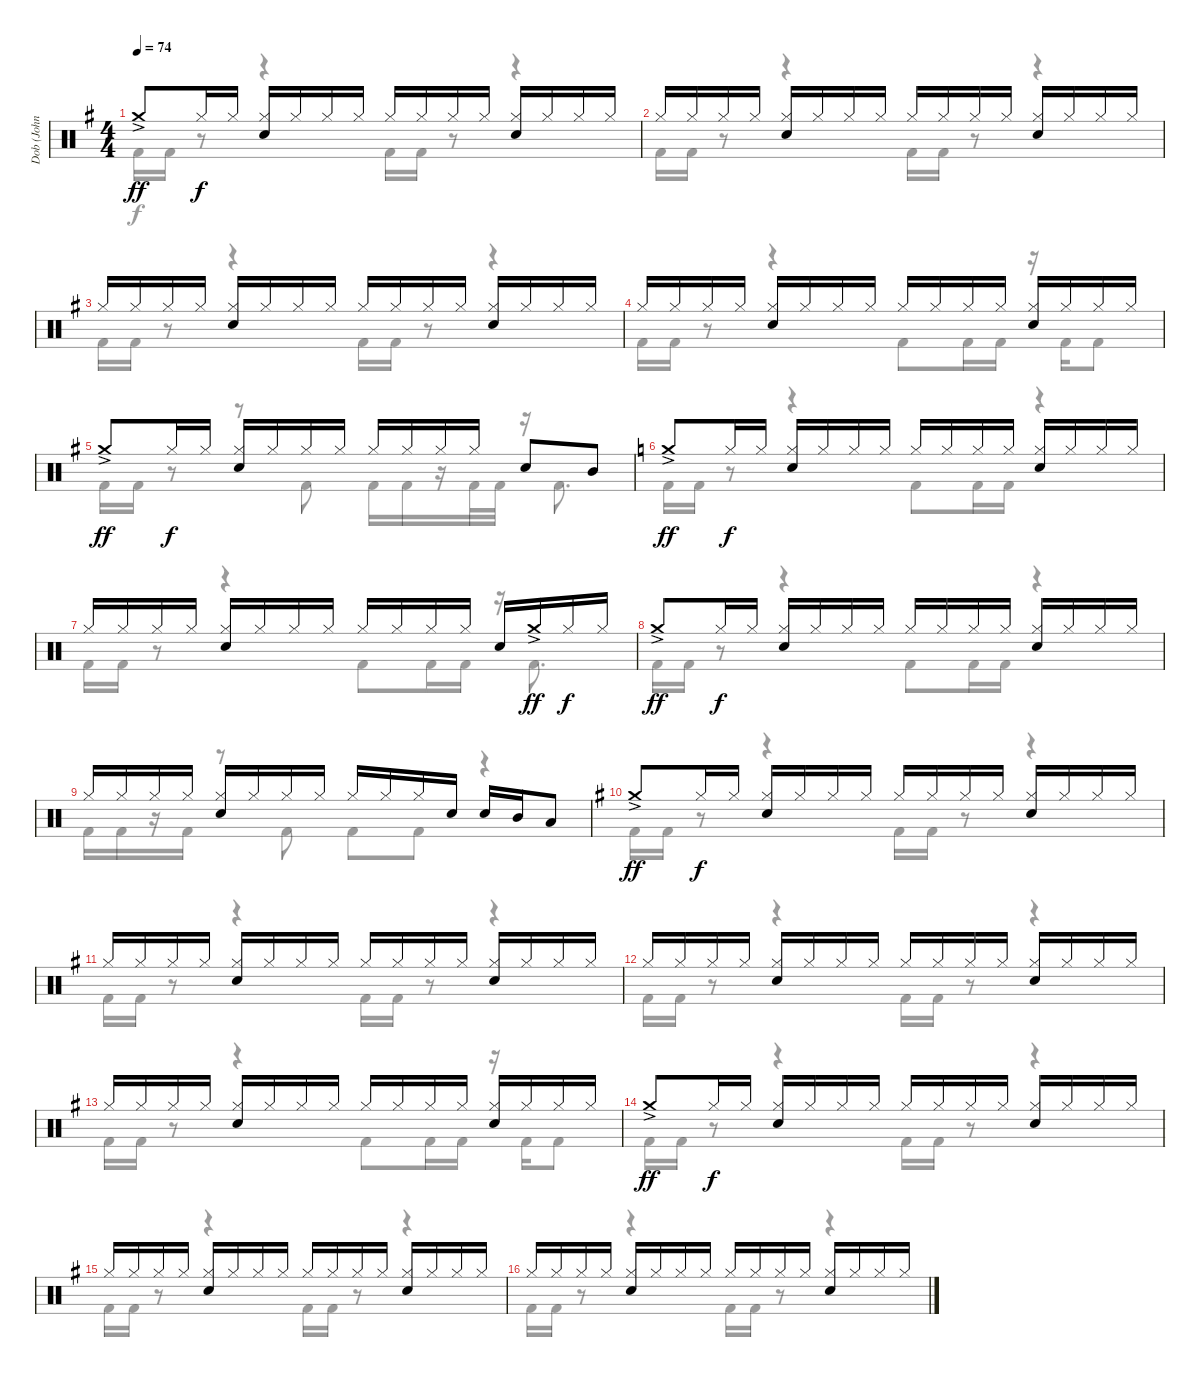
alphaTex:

\track ("Dob (John O'Reilly)" "Dob (John ") {instrument percussion}
\staff {score}
\articulation defaults
\voice
\ts (4 4)
\tempo 74
\clef neutral
\ks g "Crash medium (hit)"{ac}.8{dy ff} "Hi-Hat (closed)".16{dy f} "Hi-Hat (closed)".16
("Hi-Hat (closed)" "Electric Snare (hit)").16 "Hi-Hat (closed)".16 "Hi-Hat (closed)".16 "Hi-Hat (closed)".16 "Hi-Hat (closed)".16 "Hi-Hat (closed)".16 "Hi-Hat (closed)".16 "Hi-Hat (closed)".16 ("Hi-Hat (closed)" "Electric Snare (hit)").16 "Hi-Hat (closed)".16 "Hi-Hat (closed)".16 "Hi-Hat (closed)".16 |
"Hi-Hat (closed)".16 "Hi-Hat (closed)".16 "Hi-Hat (closed)".16 "Hi-Hat (closed)".16 ("Hi-Hat (closed)" "Electric Snare (hit)").16 "Hi-Hat (closed)".16 "Hi-Hat (closed)".16 "Hi-Hat (closed)".16 "Hi-Hat (closed)".16 "Hi-Hat (closed)".16 "Hi-Hat (closed)".16 "Hi-Hat (closed)".16 ("Hi-Hat (closed)" "Electric Snare (hit)").16 "Hi-Hat (closed)".16 "Hi-Hat (closed)".16 "Hi-Hat (closed)".16 |
"Hi-Hat (closed)".16 "Hi-Hat (closed)".16 "Hi-Hat (closed)".16 "Hi-Hat (closed)".16 ("Hi-Hat (closed)" "Electric Snare (hit)").16 "Hi-Hat (closed)".16 "Hi-Hat (closed)".16 "Hi-Hat (closed)".16 "Hi-Hat (closed)".16 "Hi-Hat (closed)".16 "Hi-Hat (closed)".16 "Hi-Hat (closed)".16 ("Hi-Hat (closed)" "Electric Snare (hit)").16 "Hi-Hat (closed)".16 "Hi-Hat (closed)".16 "Hi-Hat (closed)".16 |
"Hi-Hat (closed)".16 "Hi-Hat (closed)".16 "Hi-Hat (closed)".16 "Hi-Hat (closed)".16 ("Hi-Hat (closed)" "Electric Snare (hit)").16 "Hi-Hat (closed)".16 "Hi-Hat (closed)".16 "Hi-Hat (closed)".16 "Hi-Hat (closed)".16 "Hi-Hat (closed)".16 "Hi-Hat (closed)".16 "Hi-Hat (closed)".16 ("Hi-Hat (closed)" "Electric Snare (hit)").16 "Hi-Hat (closed)".16 "Hi-Hat (closed)".16 "Hi-Hat (closed)".16 |
"Crash medium (hit)"{ac}.8{dy ff} "Hi-Hat (closed)".16{dy f} "Hi-Hat (closed)".16 ("Hi-Hat (closed)" "Electric Snare (hit)").16 "Hi-Hat (closed)".16 "Hi-Hat (closed)".16 "Hi-Hat (closed)".16 "Hi-Hat (closed)".16 "Hi-Hat (closed)".16 "Hi-Hat (closed)".16 "Hi-Hat (closed)".16 "Electric Snare (hit)".8 "Mid Tom (hit)".8 |
\ks c "Crash medium (hit)"{ac}.8{dy ff} "Hi-Hat (closed)".16{dy f} "Hi-Hat (closed)".16
("Hi-Hat (closed)" "Electric Snare (hit)").16 "Hi-Hat (closed)".16 "Hi-Hat (closed)".16 "Hi-Hat (closed)".16 "Hi-Hat (closed)".16 "Hi-Hat (closed)".16 "Hi-Hat (closed)".16 "Hi-Hat (closed)".16 ("Hi-Hat (closed)" "Electric Snare (hit)").16 "Hi-Hat (closed)".16 "Hi-Hat (closed)".16 "Hi-Hat (closed)".16 |
"Hi-Hat (closed)".16 "Hi-Hat (closed)".16 "Hi-Hat (closed)".16 "Hi-Hat (closed)".16 ("Hi-Hat (closed)" "Electric Snare (hit)").16 "Hi-Hat (closed)".16 "Hi-Hat (closed)".16 "Hi-Hat (closed)".16 "Hi-Hat (closed)".16 "Hi-Hat (closed)".16 "Hi-Hat (closed)".16 "Hi-Hat (closed)".16 "Electric Snare (hit)".16 "Crash medium (hit)"{ac}.16{dy ff} "Hi-Hat (closed)".16{dy f} "Hi-Hat (closed)".16 |
"Crash medium (hit)"{ac}.8{dy ff} "Hi-Hat (closed)".16{dy f} "Hi-Hat (closed)".16 ("Hi-Hat (closed)" "Electric Snare (hit)").16 "Hi-Hat (closed)".16 "Hi-Hat (closed)".16 "Hi-Hat (closed)".16 "Hi-Hat (closed)".16 "Hi-Hat (closed)".16 "Hi-Hat (closed)".16 "Hi-Hat (closed)".16 ("Hi-Hat (closed)" "Electric Snare (hit)").16 "Hi-Hat (closed)".16 "Hi-Hat (closed)".16 "Hi-Hat (closed)".16 |
"Hi-Hat (closed)".16 "Hi-Hat (closed)".16 "Hi-Hat (closed)".16 "Hi-Hat (closed)".16 ("Hi-Hat (closed)" "Electric Snare (hit)").16 "Hi-Hat (closed)".16 "Hi-Hat (closed)".16 "Hi-Hat (closed)".16 "Hi-Hat (closed)".16 "Hi-Hat (closed)".16 "Hi-Hat (closed)".16 "Electric Snare (hit)".16 "Electric Snare (hit)".16 "Mid Tom (hit)".16 "Low Tom (hit)".8 |
\ks g "Crash medium (hit)"{ac}.8{dy ff} "Hi-Hat (closed)".16{dy f} "Hi-Hat (closed)".16
("Hi-Hat (closed)" "Electric Snare (hit)").16 "Hi-Hat (closed)".16 "Hi-Hat (closed)".16 "Hi-Hat (closed)".16 "Hi-Hat (closed)".16 "Hi-Hat (closed)".16 "Hi-Hat (closed)".16 "Hi-Hat (closed)".16 ("Hi-Hat (closed)" "Electric Snare (hit)").16 "Hi-Hat (closed)".16 "Hi-Hat (closed)".16 "Hi-Hat (closed)".16 |
"Hi-Hat (closed)".16 "Hi-Hat (closed)".16 "Hi-Hat (closed)".16 "Hi-Hat (closed)".16 ("Hi-Hat (closed)" "Electric Snare (hit)").16 "Hi-Hat (closed)".16 "Hi-Hat (closed)".16 "Hi-Hat (closed)".16 "Hi-Hat (closed)".16 "Hi-Hat (closed)".16 "Hi-Hat (closed)".16 "Hi-Hat (closed)".16 ("Hi-Hat (closed)" "Electric Snare (hit)").16 "Hi-Hat (closed)".16 "Hi-Hat (closed)".16 "Hi-Hat (closed)".16 |
"Hi-Hat (closed)".16 "Hi-Hat (closed)".16 "Hi-Hat (closed)".16 "Hi-Hat (closed)".16 ("Hi-Hat (closed)" "Electric Snare (hit)").16 "Hi-Hat (closed)".16 "Hi-Hat (closed)".16 "Hi-Hat (closed)".16 "Hi-Hat (closed)".16 "Hi-Hat (closed)".16 "Hi-Hat (closed)".16 "Hi-Hat (closed)".16 ("Hi-Hat (closed)" "Electric Snare (hit)").16 "Hi-Hat (closed)".16 "Hi-Hat (closed)".16 "Hi-Hat (closed)".16 |
"Hi-Hat (closed)".16 "Hi-Hat (closed)".16 "Hi-Hat (closed)".16 "Hi-Hat (closed)".16 ("Hi-Hat (closed)" "Electric Snare (hit)").16 "Hi-Hat (closed)".16 "Hi-Hat (closed)".16 "Hi-Hat (closed)".16 "Hi-Hat (closed)".16 "Hi-Hat (closed)".16 "Hi-Hat (closed)".16 "Hi-Hat (closed)".16 ("Hi-Hat (closed)" "Electric Snare (hit)").16 "Hi-Hat (closed)".16 "Hi-Hat (closed)".16 "Hi-Hat (closed)".16 |
"Crash medium (hit)"{ac}.8{dy ff} "Hi-Hat (closed)".16{dy f} "Hi-Hat (closed)".16 ("Hi-Hat (closed)" "Electric Snare (hit)").16 "Hi-Hat (closed)".16 "Hi-Hat (closed)".16 "Hi-Hat (closed)".16 "Hi-Hat (closed)".16 "Hi-Hat (closed)".16 "Hi-Hat (closed)".16 "Hi-Hat (closed)".16 ("Hi-Hat (closed)" "Electric Snare (hit)").16 "Hi-Hat (closed)".16 "Hi-Hat (closed)".16 "Hi-Hat (closed)".16 |
"Hi-Hat (closed)".16 "Hi-Hat (closed)".16 "Hi-Hat (closed)".16 "Hi-Hat (closed)".16 ("Hi-Hat (closed)" "Electric Snare (hit)").16 "Hi-Hat (closed)".16 "Hi-Hat (closed)".16 "Hi-Hat (closed)".16 "Hi-Hat (closed)".16 "Hi-Hat (closed)".16 "Hi-Hat (closed)".16 "Hi-Hat (closed)".16 ("Hi-Hat (closed)" "Electric Snare (hit)").16 "Hi-Hat (closed)".16 "Hi-Hat (closed)".16 "Hi-Hat (closed)".16 |
"Hi-Hat (closed)".16 "Hi-Hat (closed)".16 "Hi-Hat (closed)".16 "Hi-Hat (closed)".16 ("Hi-Hat (closed)" "Electric Snare (hit)").16 "Hi-Hat (closed)".16 "Hi-Hat (closed)".16 "Hi-Hat (closed)".16 "Hi-Hat (closed)".16 "Hi-Hat (closed)".16 "Hi-Hat (closed)".16 "Hi-Hat (closed)".16 ("Hi-Hat (closed)" "Electric Snare (hit)").16 "Hi-Hat (closed)".16 "Hi-Hat (closed)".16 "Hi-Hat (closed)".16
\voice
\clef neutral
\ottava regular
\simile none
\ks g "Kick (hit) 2".16{dy f} "Kick (hit) 2".16
r.8 r.4 "Kick (hit) 2".16 "Kick (hit) 2".16 r.8 r.4 |
"Kick (hit) 2".16 "Kick (hit) 2".16 r.8 r.4 "Kick (hit) 2".16 "Kick (hit) 2".16 r.8 r.4 |
"Kick (hit) 2".16 "Kick (hit) 2".16 r.8 r.4 "Kick (hit) 2".16 "Kick (hit) 2".16 r.8 r.4 |
"Kick (hit) 2".16 "Kick (hit) 2".16 r.8 r.4 "Kick (hit) 2".8 "Kick (hit) 2".16 "Kick (hit) 2".16 r.16 "Kick (hit) 2".16 "Kick (hit) 2".8 |
"Kick (hit) 2".16 "Kick (hit) 2".16 r.8 r.8 "Kick (hit) 2".8 "Kick (hit) 2".16 "Kick (hit) 2".16 r.16 "Kick (hit) 2".32 "Kick (hit) 2".32 r.16 "Kick (hit) 2".8{d} |
\ks c "Kick (hit) 2".16 "Kick (hit) 2".16
r.8 r.4 "Kick (hit) 2".8 "Kick (hit) 2".16 "Kick (hit) 2".16 r.4 |
"Kick (hit) 2".16 "Kick (hit) 2".16 r.8 r.4 "Kick (hit) 2".8 "Kick (hit) 2".16 "Kick (hit) 2".16 r.16 "Kick (hit) 2".8{d} |
"Kick (hit) 2".16 "Kick (hit) 2".16 r.8 r.4 "Kick (hit) 2".8 "Kick (hit) 2".16 "Kick (hit) 2".16 r.4 |
"Kick (hit) 2".16 "Kick (hit) 2".16 r.16 "Kick (hit) 2".16 r.8 "Kick (hit) 2".8 "Kick (hit) 2".8 "Kick (hit) 2".8 r.4 |
\ks g "Kick (hit) 2".16 "Kick (hit) 2".16
r.8 r.4 "Kick (hit) 2".16 "Kick (hit) 2".16 r.8 r.4 |
"Kick (hit) 2".16 "Kick (hit) 2".16 r.8 r.4 "Kick (hit) 2".16 "Kick (hit) 2".16 r.8 r.4 |
"Kick (hit) 2".16 "Kick (hit) 2".16 r.8 r.4 "Kick (hit) 2".16 "Kick (hit) 2".16 r.8 r.4 |
"Kick (hit) 2".16 "Kick (hit) 2".16 r.8 r.4 "Kick (hit) 2".8 "Kick (hit) 2".16 "Kick (hit) 2".16 r.16 "Kick (hit) 2".16 "Kick (hit) 2".8 |
"Kick (hit) 2".16 "Kick (hit) 2".16 r.8 r.4 "Kick (hit) 2".16 "Kick (hit) 2".16 r.8 r.4 |
"Kick (hit) 2".16 "Kick (hit) 2".16 r.8 r.4 "Kick (hit) 2".16 "Kick (hit) 2".16 r.8 r.4 |
"Kick (hit) 2".16 "Kick (hit) 2".16 r.8 r.4 "Kick (hit) 2".16 "Kick (hit) 2".16 r.8 r.4
